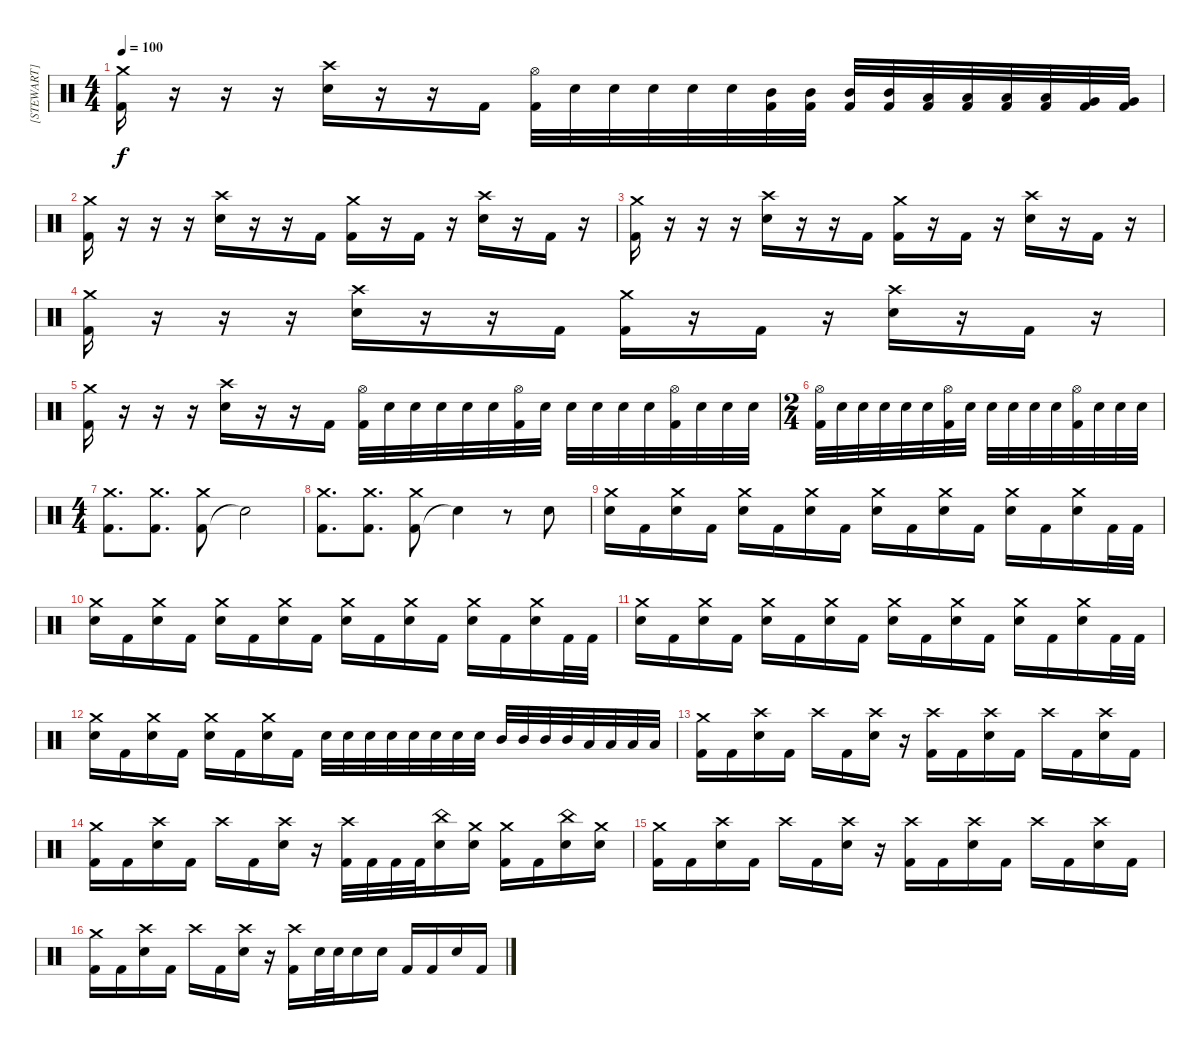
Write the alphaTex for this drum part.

\track ("[STEWART]" "[STEWART]") {instrument percussion}
\staff {score}
\articulation defaults
\ts (4 4)
\tempo 100
\clef neutral
\ks c
("Kick (hit) 2" "Crash medium (hit)").16{dy f} r.16 r.16 r.16 ("Electric Snare (hit)" "Crash high (hit)").16 r.16 r.16 "Kick (hit) 2".16 ("Kick (hit) 2" "Hi-Hat (open)").32 "Electric Snare (hit)".32 "Electric Snare (hit)".32 "Electric Snare (hit)".32 "Electric Snare (hit)".32 "Electric Snare (hit)".32 ("Kick (hit) 2" "Mid Tom (hit)").32 ("Kick (hit) 2" "Mid Tom (hit)").32 ("Kick (hit) 2" "Mid Tom (hit)").32 ("Kick (hit) 2" "Mid Tom (hit)").32 ("Kick (hit) 2" "Low Tom (hit)").32 ("Kick (hit) 2" "Low Tom (hit)").32 ("Kick (hit) 2" "Low Tom (hit)").32 ("Kick (hit) 2" "Low Tom (hit)").32 ("Kick (hit) 2" "Very Low Tom (hit)").32 ("Kick (hit) 2" "Very Low Tom (hit)").32 |
("Kick (hit) 2" "Crash medium (hit)").16 r.16 r.16 r.16 ("Electric Snare (hit)" "Crash high (hit)").16 r.16 r.16 "Kick (hit) 2".16 ("Kick (hit) 2" "Crash medium (hit)").16 r.16 "Kick (hit) 2".16 r.16 ("Electric Snare (hit)" "Crash high (hit)").16 r.16 "Kick (hit) 2".16 r.16 |
("Kick (hit) 2" "Crash medium (hit)").16 r.16 r.16 r.16 ("Electric Snare (hit)" "Crash high (hit)").16 r.16 r.16 "Kick (hit) 2".16 ("Kick (hit) 2" "Crash medium (hit)").16 r.16 "Kick (hit) 2".16 r.16 ("Electric Snare (hit)" "Crash high (hit)").16 r.16 "Kick (hit) 2".16 r.16 |
("Kick (hit) 2" "Crash medium (hit)").16 r.16 r.16 r.16 ("Electric Snare (hit)" "Crash high (hit)").16 r.16 r.16 "Kick (hit) 2".16 ("Kick (hit) 2" "Crash medium (hit)").16 r.16 "Kick (hit) 2".16 r.16 ("Electric Snare (hit)" "Crash high (hit)").16 r.16 "Kick (hit) 2".16 r.16 |
("Kick (hit) 2" "Crash medium (hit)").16 r.16 r.16 r.16 ("Electric Snare (hit)" "Crash high (hit)").16 r.16 r.16 "Kick (hit) 2".16 ("Kick (hit) 2" "Hi-Hat (open)").32 "Electric Snare (hit)".32 "Electric Snare (hit)".32 "Electric Snare (hit)".32 "Electric Snare (hit)".32 "Electric Snare (hit)".32 ("Kick (hit) 2" "Hi-Hat (open)").32 "Electric Snare (hit)".32 "Electric Snare (hit)".32 "Electric Snare (hit)".32 "Electric Snare (hit)".32 "Electric Snare (hit)".32 ("Kick (hit) 2" "Hi-Hat (open)").32 "Electric Snare (hit)".32 "Electric Snare (hit)".32 "Electric Snare (hit)".32 |
\ts (2 4)
("Kick (hit) 2" "Hi-Hat (open)").32 "Electric Snare (hit)".32 "Electric Snare (hit)".32 "Electric Snare (hit)".32 "Electric Snare (hit)".32 "Electric Snare (hit)".32 ("Kick (hit) 2" "Hi-Hat (open)").32 "Electric Snare (hit)".32 "Electric Snare (hit)".32 "Electric Snare (hit)".32 "Electric Snare (hit)".32 "Electric Snare (hit)".32 ("Kick (hit) 2" "Hi-Hat (open)").32 "Electric Snare (hit)".32 "Electric Snare (hit)".32 "Electric Snare (hit)".32 |
\ts (4 4)
("Kick (hit) 2" "Crash medium (hit)").8{d} ("Kick (hit) 2" "Crash medium (hit)").8{d} ("Kick (hit) 2" "Crash medium (hit)").8 "Snare (hit)"{t}.2 |
("Kick (hit) 2" "Crash medium (hit)").8{d} ("Kick (hit) 2" "Crash medium (hit)").8{d} ("Kick (hit) 2" "Crash medium (hit)").8 "Snare (hit)"{t}.4 r.8 "Electric Snare (hit)".8 |
("Electric Snare (hit)" "Crash medium (hit)").16 "Kick (hit) 2".16 ("Electric Snare (hit)" "Crash medium (hit)").16 "Kick (hit) 2".16 ("Electric Snare (hit)" "Crash medium (hit)").16 "Kick (hit) 2".16 ("Electric Snare (hit)" "Crash medium (hit)").16 "Kick (hit) 2".16 ("Electric Snare (hit)" "Crash medium (hit)").16 "Kick (hit) 2".16 ("Electric Snare (hit)" "Crash medium (hit)").16 "Kick (hit) 2".16 ("Electric Snare (hit)" "Crash medium (hit)").16 "Kick (hit) 2".16 ("Electric Snare (hit)" "Crash medium (hit)").16 "Kick (hit) 2".32 "Kick (hit) 2".32 |
("Electric Snare (hit)" "Crash medium (hit)").16 "Kick (hit) 2".16 ("Electric Snare (hit)" "Crash medium (hit)").16 "Kick (hit) 2".16 ("Electric Snare (hit)" "Crash medium (hit)").16 "Kick (hit) 2".16 ("Electric Snare (hit)" "Crash medium (hit)").16 "Kick (hit) 2".16 ("Electric Snare (hit)" "Crash medium (hit)").16 "Kick (hit) 2".16 ("Electric Snare (hit)" "Crash medium (hit)").16 "Kick (hit) 2".16 ("Electric Snare (hit)" "Crash medium (hit)").16 "Kick (hit) 2".16 ("Electric Snare (hit)" "Crash medium (hit)").16 "Kick (hit) 2".32 "Kick (hit) 2".32 |
("Electric Snare (hit)" "Crash medium (hit)").16 "Kick (hit) 2".16 ("Electric Snare (hit)" "Crash medium (hit)").16 "Kick (hit) 2".16 ("Electric Snare (hit)" "Crash medium (hit)").16 "Kick (hit) 2".16 ("Electric Snare (hit)" "Crash medium (hit)").16 "Kick (hit) 2".16 ("Electric Snare (hit)" "Crash medium (hit)").16 "Kick (hit) 2".16 ("Electric Snare (hit)" "Crash medium (hit)").16 "Kick (hit) 2".16 ("Electric Snare (hit)" "Crash medium (hit)").16 "Kick (hit) 2".16 ("Electric Snare (hit)" "Crash medium (hit)").16 "Kick (hit) 2".32 "Kick (hit) 2".32 |
("Electric Snare (hit)" "Crash medium (hit)").16 "Kick (hit) 2".16 ("Electric Snare (hit)" "Crash medium (hit)").16 "Kick (hit) 2".16 ("Electric Snare (hit)" "Crash medium (hit)").16 "Kick (hit) 2".16 ("Electric Snare (hit)" "Crash medium (hit)").16 "Kick (hit) 2".16 "Electric Snare (hit)".32 "Electric Snare (hit)".32 "Electric Snare (hit)".32 "Electric Snare (hit)".32 "Electric Snare (hit)".32 "Electric Snare (hit)".32 "Electric Snare (hit)".32 "Electric Snare (hit)".32 "Mid Tom (hit)".32 "Mid Tom (hit)".32 "Mid Tom (hit)".32 "Mid Tom (hit)".32 "Low Tom (hit)".32 "Low Tom (hit)".32 "Low Tom (hit)".32 "Low Tom (hit)".32 |
("Kick (hit) 2" "Crash medium (hit)").16 "Kick (hit) 2".16 ("Electric Snare (hit)" "Crash high (hit)").16 "Kick (hit) 2".16 "Crash high (hit)".16 "Kick (hit) 2".16 ("Electric Snare (hit)" "Crash high (hit)").16 r.16 ("Kick (hit) 2" "Crash high (hit)").16 "Kick (hit) 2".16 ("Electric Snare (hit)" "Crash high (hit)").16 "Kick (hit) 2".16 "Crash high (hit)".16 "Kick (hit) 2".16 ("Electric Snare (hit)" "Crash high (hit)").16 "Kick (hit) 2".16 |
("Kick (hit) 2" "Crash medium (hit)").16 "Kick (hit) 2".16 ("Electric Snare (hit)" "Crash high (hit)").16 "Kick (hit) 2".16 "Crash high (hit)".16 "Kick (hit) 2".16 ("Electric Snare (hit)" "Crash high (hit)").16 r.16 ("Kick (hit) 2" "Crash high (hit)").32 "Kick (hit) 2".32 "Kick (hit) 2".32 "Kick (hit) 2".32 ("Electric Snare (hit)" "China (hit)").16 ("Electric Snare (hit)" "Crash medium (hit)").16 ("Kick (hit) 2" "Crash medium (hit)").16 "Kick (hit) 2".16 ("Electric Snare (hit)" "China (hit)").16 ("Electric Snare (hit)" "Crash medium (hit)").16 |
("Kick (hit) 2" "Crash medium (hit)").16 "Kick (hit) 2".16 ("Electric Snare (hit)" "Crash high (hit)").16 "Kick (hit) 2".16 "Crash high (hit)".16 "Kick (hit) 2".16 ("Electric Snare (hit)" "Crash high (hit)").16 r.16 ("Kick (hit) 2" "Crash high (hit)").16 "Kick (hit) 2".16 ("Electric Snare (hit)" "Crash high (hit)").16 "Kick (hit) 2".16 "Crash high (hit)".16 "Kick (hit) 2".16 ("Electric Snare (hit)" "Crash high (hit)").16 "Kick (hit) 2".16 |
("Kick (hit) 2" "Crash medium (hit)").16 "Kick (hit) 2".16 ("Electric Snare (hit)" "Crash high (hit)").16 "Kick (hit) 2".16 "Crash high (hit)".16 "Kick (hit) 2".16 ("Electric Snare (hit)" "Crash high (hit)").16 r.16 ("Kick (hit) 2" "Crash high (hit)").16 "Electric Snare (hit)".32 "Electric Snare (hit)".32 "Electric Snare (hit)".16 "Electric Snare (hit)".16 "Kick (hit) 2".16 "Kick (hit) 2".16 "Electric Snare (hit)".16 "Kick (hit) 2".16
